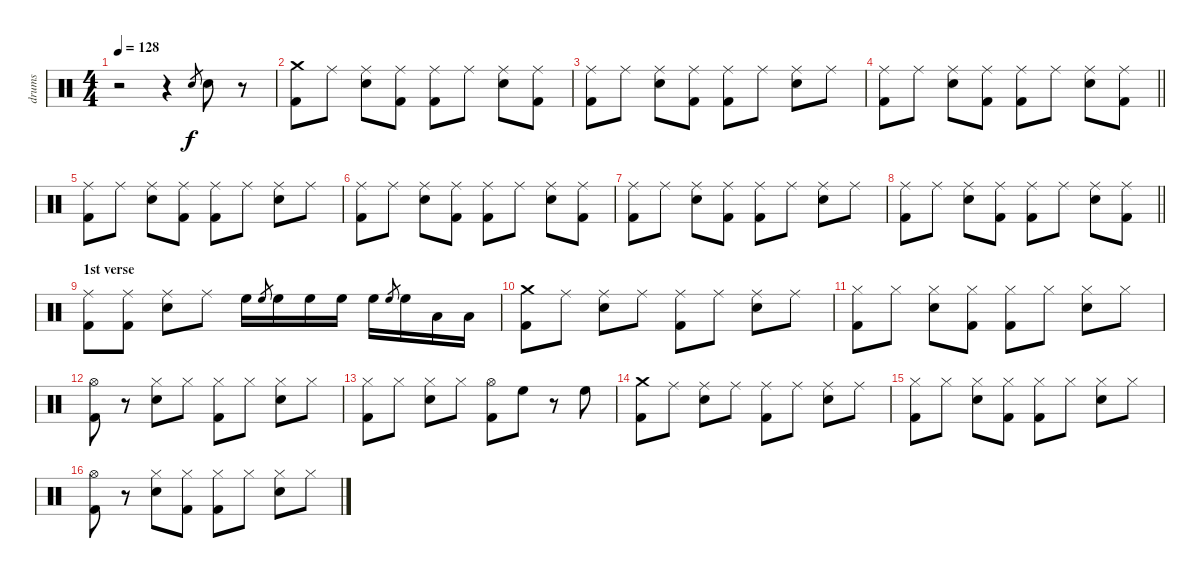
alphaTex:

\track ("drums" "drums") {instrument percussion}
\staff {score}
\articulation defaults
\ts (4 4)
\tempo 128
\clef neutral
\ks c
r.2{dy f} r.4 "Snare (hit) 2".8{gr} "Snare (hit) 2".8 r.8 |
("Crash medium (hit)" "Kick (hit) 2").8 "Ride (middle)".8 ("Ride (middle)" "Snare (hit) 2").8 ("Ride (middle)" "Kick (hit) 2").8 ("Ride (middle)" "Kick (hit) 2").8 "Ride (middle)".8 ("Ride (middle)" "Snare (hit) 2").8 ("Ride (middle)" "Kick (hit) 2").8 |
("Ride (middle)" "Kick (hit) 2").8 "Ride (middle)".8 ("Ride (middle)" "Snare (hit) 2").8 ("Ride (middle)" "Kick (hit) 2").8 ("Ride (middle)" "Kick (hit) 2").8 "Ride (middle)".8 ("Ride (middle)" "Snare (hit) 2").8 "Ride (middle)".8 |
\barLineRight lightlight
("Ride (middle)" "Kick (hit) 2").8 "Ride (middle)".8 ("Ride (middle)" "Snare (hit) 2").8 ("Ride (middle)" "Kick (hit) 2").8 ("Ride (middle)" "Kick (hit) 2").8 "Ride (middle)".8 ("Ride (middle)" "Snare (hit) 2").8 ("Ride (middle)" "Kick (hit) 2").8 |
("Ride (middle)" "Kick (hit) 2").8 "Ride (middle)".8 ("Ride (middle)" "Snare (hit) 2").8 ("Ride (middle)" "Kick (hit) 2").8 ("Ride (middle)" "Kick (hit) 2").8 "Ride (middle)".8 ("Ride (middle)" "Snare (hit) 2").8 "Ride (middle)".8 |
("Ride (middle)" "Kick (hit) 2").8 "Ride (middle)".8 ("Ride (middle)" "Snare (hit) 2").8 ("Ride (middle)" "Kick (hit) 2").8 ("Ride (middle)" "Kick (hit) 2").8 "Ride (middle)".8 ("Ride (middle)" "Snare (hit) 2").8 ("Ride (middle)" "Kick (hit) 2").8 |
("Ride (middle)" "Kick (hit) 2").8 "Ride (middle)".8 ("Ride (middle)" "Snare (hit) 2").8 ("Ride (middle)" "Kick (hit) 2").8 ("Ride (middle)" "Kick (hit) 2").8 "Ride (middle)".8 ("Ride (middle)" "Snare (hit) 2").8 "Ride (middle)".8 |
\barLineRight lightlight
("Ride (middle)" "Kick (hit) 2").8 "Ride (middle)".8 ("Ride (middle)" "Snare (hit) 2").8 ("Ride (middle)" "Kick (hit) 2").8 ("Ride (middle)" "Kick (hit) 2").8 "Ride (middle)".8 ("Ride (middle)" "Snare (hit) 2").8 ("Ride (middle)" "Kick (hit) 2").8 |
\section ("" "1st verse")
("Ride (middle)" "Kick (hit) 2").8 ("Ride (middle)" "Kick (hit) 2").8 ("Ride (middle)" "Snare (hit) 2").8 "Ride (middle)".8 "High Floor Tom (hit)".16 "High Floor Tom (hit)".8{gr} "High Floor Tom (hit)".16 "High Floor Tom (hit)".16 "High Floor Tom (hit)".16 "High Floor Tom (hit)".16 "High Floor Tom (hit)".8{gr} "High Floor Tom (hit)".16 "Low Floor Tom (hit)".16 "Low Floor Tom (hit)".16 |
("Crash medium (hit)" "Kick (hit) 2").8 "Ride (middle)".8 ("Ride (middle)" "Snare (hit) 2").8 "Ride (middle)".8 ("Ride (middle)" "Kick (hit) 2").8 "Ride (middle)".8 ("Ride (middle)" "Snare (hit) 2").8 "Ride (middle)".8 |
("Hi-Hat (closed)" "Kick (hit) 2").8 "Hi-Hat (closed)".8 ("Hi-Hat (closed)" "Snare (hit) 2").8 ("Hi-Hat (closed)" "Kick (hit) 2").8 ("Hi-Hat (closed)" "Kick (hit) 2").8 "Hi-Hat (closed)".8 ("Hi-Hat (closed)" "Snare (hit) 2").8 "Hi-Hat (closed)".8 |
("Hi-Hat (open)" "Kick (hit) 2").8 r.8 ("Hi-Hat (closed)" "Snare (hit) 2").8 "Hi-Hat (closed)".8 ("Hi-Hat (closed)" "Kick (hit) 2").8 "Hi-Hat (closed)".8 ("Hi-Hat (closed)" "Snare (hit) 2").8 "Hi-Hat (closed)".8 |
("Hi-Hat (closed)" "Kick (hit) 2").8 "Hi-Hat (closed)".8 ("Hi-Hat (closed)" "Snare (hit) 2").8 "Hi-Hat (closed)".8 ("Hi-Hat (open)" "Kick (hit) 2").8 "High Floor Tom (hit)".8 r.8 "High Floor Tom (hit)".8 |
("Crash medium (hit)" "Kick (hit) 2").8 "Ride (middle)".8 ("Ride (middle)" "Snare (hit) 2").8 "Ride (middle)".8 ("Ride (middle)" "Kick (hit) 2").8 "Ride (middle)".8 ("Ride (middle)" "Snare (hit) 2").8 "Ride (middle)".8 |
("Hi-Hat (closed)" "Kick (hit) 2").8 "Hi-Hat (closed)".8 ("Hi-Hat (closed)" "Snare (hit) 2").8 ("Hi-Hat (closed)" "Kick (hit) 2").8 ("Hi-Hat (closed)" "Kick (hit) 2").8 "Hi-Hat (closed)".8 ("Hi-Hat (closed)" "Snare (hit) 2").8 "Hi-Hat (closed)".8 |
("Hi-Hat (open)" "Kick (hit) 2").8 r.8 ("Hi-Hat (closed)" "Snare (hit) 2").8 ("Hi-Hat (closed)" "Kick (hit) 2").8 ("Hi-Hat (closed)" "Kick (hit) 2").8 "Hi-Hat (closed)".8 ("Hi-Hat (closed)" "Snare (hit) 2").8 "Hi-Hat (closed)".8
